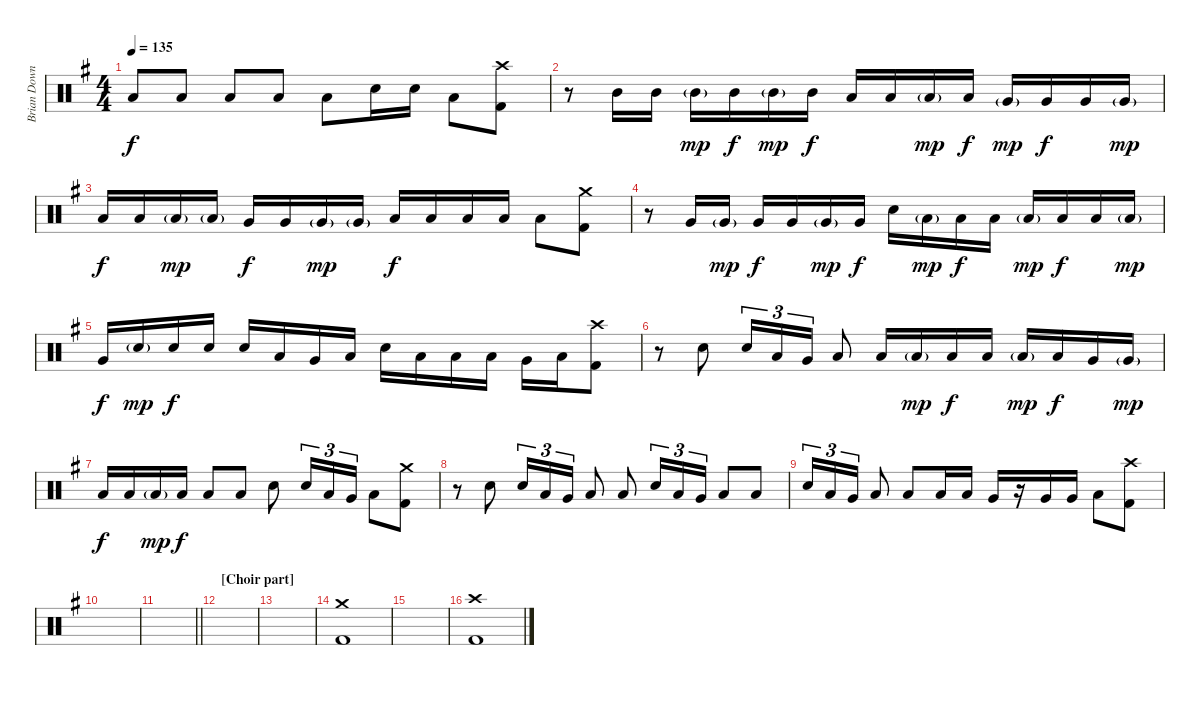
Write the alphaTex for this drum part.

\track ("Brian Downey" "Brian Down") {instrument percussion}
\staff {score}
\articulation defaults
\ts (4 4)
\tempo 135
\clef neutral
\ks eminor "Low Floor Tom (hit)".8{dy f} "Low Floor Tom (hit)".8 "Low Floor Tom (hit)".8 "Low Floor Tom (hit)".8 "Low Floor Tom (hit)".8 "Electric Snare (hit)".16 "Electric Snare (hit)".16 "Low Floor Tom (hit)".8
("Crash high (hit)" "Kick (hit) 2").8 |
r.8 "Mid Tom (hit)".16 "Mid Tom (hit)".16 "Mid Tom (hit)"{g}.16{dy mp} "Mid Tom (hit)".16{dy f} "Mid Tom (hit)"{g}.16{dy mp} "Mid Tom (hit)".16{dy f} "Low Tom (hit)".16 "Low Tom (hit)".16 "Low Tom (hit)"{g}.16{dy mp} "Low Tom (hit)".16{dy f} "Very Low Tom (hit)"{g}.16{dy mp} "Very Low Tom (hit)".16{dy f} "Very Low Tom (hit)".16 "Very Low Tom (hit)"{g}.16{dy mp} |
"Low Tom (hit)".16{dy f} "Low Tom (hit)".16 "Low Tom (hit)"{g}.16{dy mp} "Low Tom (hit)"{g}.16 "Very Low Tom (hit)".16{dy f} "Very Low Tom (hit)".16 "Very Low Tom (hit)"{g}.16{dy mp} "Very Low Tom (hit)"{g}.16 "Low Floor Tom (hit)".16{dy f} "Low Floor Tom (hit)".16 "Low Floor Tom (hit)".16 "Low Floor Tom (hit)".16 "Low Floor Tom (hit)".8 ("Crash medium (hit)" "Kick (hit) 2").8 |
r.8 "Very Low Tom (hit)".16 "Very Low Tom (hit)"{g}.16{dy mp} "Very Low Tom (hit)".16{dy f} "Very Low Tom (hit)".16 "Very Low Tom (hit)"{g}.16{dy mp} "Very Low Tom (hit)".16{dy f} "Electric Snare (hit)".16 "Low Floor Tom (hit)"{g}.16{dy mp} "Low Floor Tom (hit)".16{dy f} "Low Floor Tom (hit)".16 "Low Floor Tom (hit)"{g}.16{dy mp} "Low Floor Tom (hit)".16{dy f} "Low Floor Tom (hit)".16 "Low Floor Tom (hit)"{g}.16{dy mp} |
"Very Low Tom (hit)".16{dy f} "Electric Snare (hit)"{g}.16{dy mp} "Electric Snare (hit)".16{dy f} "Electric Snare (hit)".16 "Electric Snare (hit)".16 "Low Tom (hit)".16 "Very Low Tom (hit)".16 "Low Floor Tom (hit)".16 "Electric Snare (hit)".16 "Low Tom (hit)".16 "Low Tom (hit)".16 "Low Tom (hit)".16 "Very Low Tom (hit)".16 "Low Floor Tom (hit)".16 ("Crash high (hit)" "Kick (hit) 2").8 |
r.8 "Electric Snare (hit)".8 "Electric Snare (hit)".16{tu (3 2)} "Low Tom (hit)".16{tu (3 2)} "Very Low Tom (hit)".16{tu (3 2)} "Low Floor Tom (hit)".8 "Low Tom (hit)".16 "Low Tom (hit)"{g}.16{dy mp} "Low Tom (hit)".16{dy f} "Low Tom (hit)".16 "Low Tom (hit)"{g}.16{dy mp} "Low Tom (hit)".16{dy f} "Very Low Tom (hit)".16 "Very Low Tom (hit)"{g}.16{dy mp} |
"Low Floor Tom (hit)".16{dy f} "Low Floor Tom (hit)".16 "Low Floor Tom (hit)"{g}.16{dy mp} "Low Floor Tom (hit)".16{dy f} "Low Floor Tom (hit)".8 "Low Floor Tom (hit)".8 "Electric Snare (hit)".8 "Electric Snare (hit)".16{tu (3 2)} "Low Tom (hit)".16{tu (3 2)} "Very Low Tom (hit)".16{tu (3 2)} "Low Floor Tom (hit)".8 ("Crash medium (hit)" "Kick (hit) 2").8 |
r.8 "Electric Snare (hit)".8 "Electric Snare (hit)".16{tu (3 2)} "Low Tom (hit)".16{tu (3 2)} "Very Low Tom (hit)".16{tu (3 2)} "Low Floor Tom (hit)".8 "Low Tom (hit)".8 "Electric Snare (hit)".16{tu (3 2)} "Low Tom (hit)".16{tu (3 2)} "Very Low Tom (hit)".16{tu (3 2)} "Low Floor Tom (hit)".8 "Low Tom (hit)".8 |
"Electric Snare (hit)".16{tu (3 2)} "Low Tom (hit)".16{tu (3 2)} "Very Low Tom (hit)".16{tu (3 2)} "Low Floor Tom (hit)".8 "Low Tom (hit)".8 "Low Tom (hit)".16 "Low Tom (hit)".16 "Very Low Tom (hit)".16 r.16 "Very Low Tom (hit)".16 "Very Low Tom (hit)".16 "Low Floor Tom (hit)".8 ("Crash high (hit)" "Kick (hit) 2").8 |
|
\barLineRight lightlight
|
\section ("" "[Choir part]")
|
|
("Crash medium (hit)" "Kick (hit) 2").1 |
|
("Crash high (hit)" "Kick (hit) 2").1
